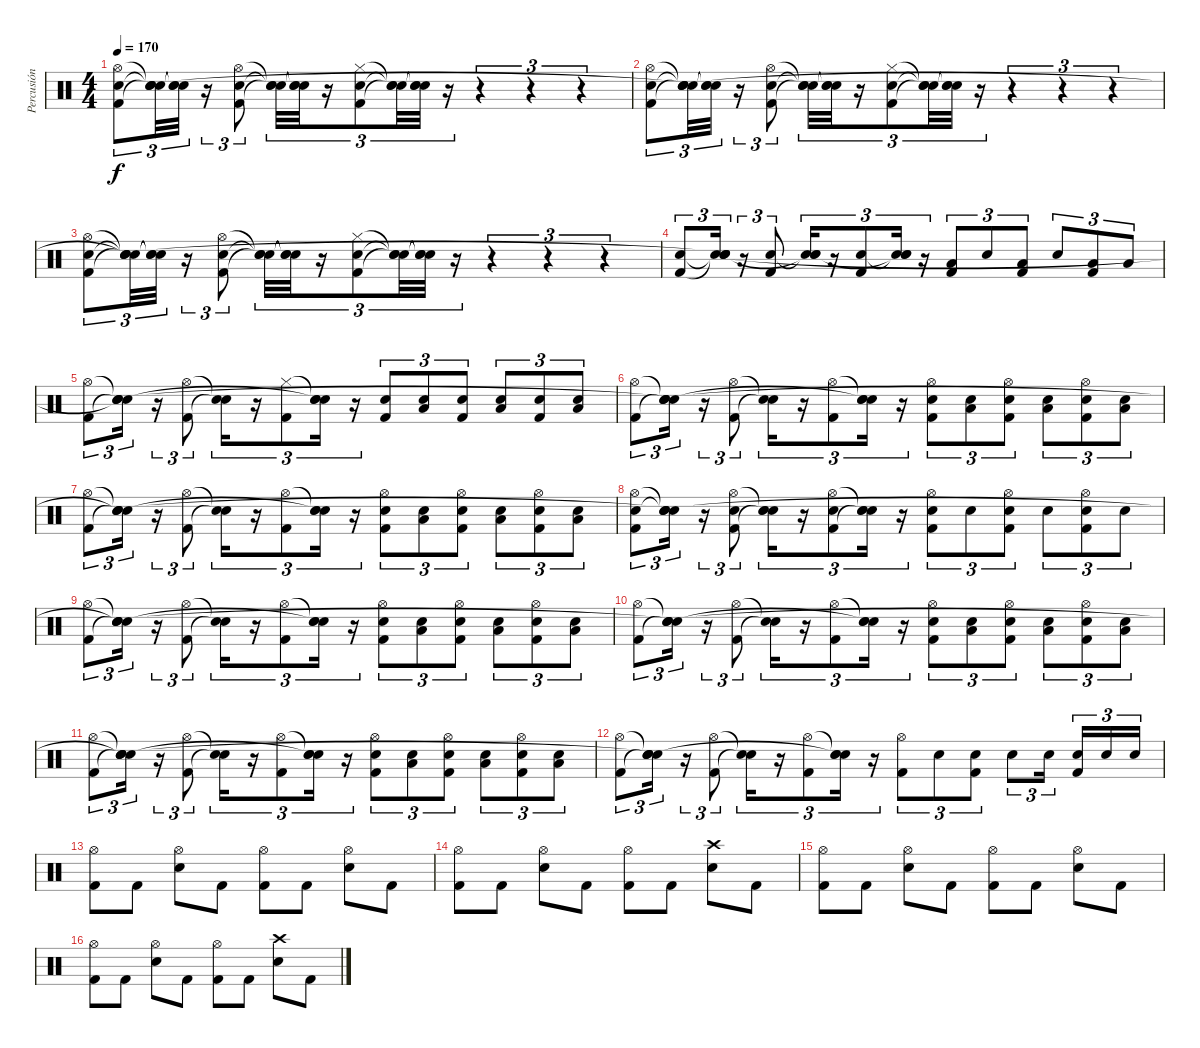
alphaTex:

\track ("Percusión" "Percusión") {instrument percussion}
\staff {score}
\articulation defaults
\ts (4 4)
\tempo 170
\clef neutral
\ks c
("Hi-Hat (open)" "Snare (hit) 2" "Kick (hit) 2").8{tu (3 2) dy f} ("Snare (hit)"{t} "Snare (hit)"{t} "Snare (hit)"{t} "Snare (hit)").32{tu (3 2)} ("Snare (hit)"{t} "Snare (hit)"{t} "Snare (hit)"{t}).32{tu (3 2)} r.16{tu (3 2)} ("Hi-Hat (open)" "Snare (hit) 2" "Kick (hit) 2").8{tu (3 2)} ("Snare (hit)"{t} "Snare (hit)"{t} "Snare (hit)"{t}).32{tu (3 2)} ("Snare (hit)"{t} "Snare (hit)"{t} "Snare (hit)"{t}).32{tu (3 2)} r.16{tu (3 2)} ("Hi-Hat (closed)" "Snare (hit) 2" "Kick (hit) 2").8{tu (3 2)} ("Snare (hit)"{t} "Snare (hit)"{t} "Snare (hit)"{t}).32{tu (3 2)} ("Snare (hit)"{t} "Snare (hit)"{t} "Snare (hit)"{t}).32{tu (3 2)} r.16{tu (3 2)} r.4{tu (3 2)} r.4{tu (3 2)} r.4{tu (3 2)} |
("Hi-Hat (open)" "Snare (hit) 2" "Kick (hit) 2").8{tu (3 2)} ("Snare (hit)"{t} "Snare (hit)"{t} "Snare (hit)"{t} "Snare (hit)"{t}).32{tu (3 2)} ("Snare (hit)"{t} "Snare (hit)"{t} "Snare (hit)"{t}).32{tu (3 2)} r.16{tu (3 2)} ("Hi-Hat (open)" "Snare (hit) 2" "Kick (hit) 2").8{tu (3 2)} ("Snare (hit)"{t} "Snare (hit)"{t} "Snare (hit)"{t}).32{tu (3 2)} ("Snare (hit)"{t} "Snare (hit)"{t} "Snare (hit)"{t}).32{tu (3 2)} r.16{tu (3 2)} ("Hi-Hat (closed)" "Snare (hit) 2" "Kick (hit) 2").8{tu (3 2)} ("Snare (hit)"{t} "Snare (hit)"{t} "Snare (hit)"{t}).32{tu (3 2)} ("Snare (hit)"{t} "Snare (hit)"{t} "Snare (hit)"{t}).32{tu (3 2)} r.16{tu (3 2)} r.4{tu (3 2)} r.4{tu (3 2)} r.4{tu (3 2)} |
("Hi-Hat (open)" "Snare (hit) 2" "Kick (hit) 2").8{tu (3 2)} ("Snare (hit)"{t} "Snare (hit)"{t} "Snare (hit)"{t} "Snare (hit)"{t}).32{tu (3 2)} ("Snare (hit)"{t} "Snare (hit)"{t} "Snare (hit)"{t}).32{tu (3 2)} r.16{tu (3 2)} ("Hi-Hat (open)" "Snare (hit) 2" "Kick (hit) 2").8{tu (3 2)} ("Snare (hit)"{t} "Snare (hit)"{t} "Snare (hit)"{t}).32{tu (3 2)} ("Snare (hit)"{t} "Snare (hit)"{t} "Snare (hit)"{t}).32{tu (3 2)} r.16{tu (3 2)} ("Hi-Hat (closed)" "Snare (hit) 2" "Kick (hit) 2").8{tu (3 2)} ("Snare (hit)"{t} "Snare (hit)"{t} "Snare (hit)"{t}).32{tu (3 2)} ("Snare (hit)"{t} "Snare (hit)"{t} "Snare (hit)"{t}).32{tu (3 2)} r.16{tu (3 2)} r.4{tu (3 2)} r.4{tu (3 2)} r.4{tu (3 2)} |
("Snare (hit) 2" "Kick (hit) 2").8{tu (3 2)} ("Snare (hit)"{t} "Snare (hit)"{t} "Snare (hit) 2" "Snare (hit)"{t}).16{tu (3 2)} r.16{tu (3 2)} ("Snare (hit) 2" "Kick (hit) 2").8{tu (3 2)} ("Snare (hit)"{t} "Snare (hit) 2" "Snare (hit)"{t}).16{tu (3 2)} r.16{tu (3 2)} ("Snare (hit) 2" "Kick (hit) 2").8{tu (3 2)} ("Snare (hit)"{t} "Snare (hit) 2" "Snare (hit)"{t}).16{tu (3 2)} r.16{tu (3 2)} ("Low Tom (hit)" "Kick (hit) 2").8{tu (3 2)} "Snare (hit) 2".8{tu (3 2)} ("Low Tom (hit)" "Kick (hit) 2").8{tu (3 2)} "Snare (hit) 2".8{tu (3 2)} ("Low Tom (hit)" "Kick (hit) 2").8{tu (3 2)} "Low Tom (hit)".8{tu (3 2)} |
("Hi-Hat (open)" "Kick (hit) 2").8{tu (3 2)} ("Snare (hit)"{t} "Snare (hit)"{t} "Snare (hit) 2" "Snare (hit)"{t}).16{tu (3 2)} r.16{tu (3 2)} ("Hi-Hat (open)" "Kick (hit) 2").8{tu (3 2)} ("Snare (hit)"{t} "Snare (hit)"{t}).16{tu (3 2)} r.16{tu (3 2)} ("Hi-Hat (closed)" "Kick (hit) 2").8{tu (3 2)} ("Snare (hit)"{t} "Snare (hit) 2" "Snare (hit)"{t}).16{tu (3 2)} r.16{tu (3 2)} ("Snare (hit) 2" "Kick (hit) 2").8{tu (3 2)} ("Low Tom (hit)" "Snare (hit) 2").8{tu (3 2)} ("Snare (hit) 2" "Kick (hit) 2").8{tu (3 2)} ("Low Tom (hit)" "Snare (hit) 2").8{tu (3 2)} ("Snare (hit) 2" "Kick (hit) 2").8{tu (3 2)} ("Low Tom (hit)" "Snare (hit) 2").8{tu (3 2)} |
("Hi-Hat (open)" "Kick (hit) 2").8{tu (3 2)} ("Snare (hit)"{t} "Snare (hit)"{t} "Snare (hit) 2" "Snare (hit)"{t}).16{tu (3 2)} r.16{tu (3 2)} ("Hi-Hat (open)" "Kick (hit) 2").8{tu (3 2)} ("Snare (hit)"{t} "Snare (hit)"{t}).16{tu (3 2)} r.16{tu (3 2)} ("Hi-Hat (open)" "Kick (hit) 2").8{tu (3 2)} ("Snare (hit)"{t} "Snare (hit) 2" "Snare (hit)"{t}).16{tu (3 2)} r.16{tu (3 2)} ("Hi-Hat (open)" "Snare (hit) 2" "Kick (hit) 2").8{tu (3 2)} ("Low Tom (hit)" "Snare (hit) 2").8{tu (3 2)} ("Hi-Hat (open)" "Snare (hit) 2" "Kick (hit) 2").8{tu (3 2)} ("Low Tom (hit)" "Snare (hit) 2").8{tu (3 2)} ("Hi-Hat (open)" "Snare (hit) 2" "Kick (hit) 2").8{tu (3 2)} ("Low Tom (hit)" "Snare (hit) 2").8{tu (3 2)} |
("Hi-Hat (open)" "Kick (hit) 2").8{tu (3 2)} ("Snare (hit)"{t} "Snare (hit)"{t} "Snare (hit) 2" "Snare (hit)"{t}).16{tu (3 2)} r.16{tu (3 2)} ("Hi-Hat (open)" "Kick (hit) 2").8{tu (3 2)} ("Snare (hit)"{t} "Snare (hit)"{t}).16{tu (3 2)} r.16{tu (3 2)} ("Hi-Hat (open)" "Kick (hit) 2").8{tu (3 2)} ("Snare (hit)"{t} "Snare (hit) 2" "Snare (hit)"{t}).16{tu (3 2)} r.16{tu (3 2)} ("Hi-Hat (open)" "Snare (hit) 2" "Kick (hit) 2").8{tu (3 2)} ("Low Tom (hit)" "Snare (hit) 2").8{tu (3 2)} ("Hi-Hat (open)" "Snare (hit) 2" "Kick (hit) 2").8{tu (3 2)} ("Low Tom (hit)" "Snare (hit) 2").8{tu (3 2)} ("Hi-Hat (open)" "Snare (hit) 2" "Kick (hit) 2").8{tu (3 2)} ("Low Tom (hit)" "Snare (hit) 2").8{tu (3 2)} |
("Hi-Hat (open)" "Snare (hit) 2" "Kick (hit) 2").8{tu (3 2)} ("Snare (hit)"{t} "Snare (hit)"{t} "Snare (hit) 2" "Snare (hit)"{t}).16{tu (3 2)} r.16{tu (3 2)} ("Hi-Hat (open)" "Snare (hit) 2" "Kick (hit) 2").8{tu (3 2)} ("Snare (hit)"{t} "Snare (hit) 2" "Snare (hit)"{t}).16{tu (3 2)} r.16{tu (3 2)} ("Hi-Hat (open)" "Snare (hit) 2" "Kick (hit) 2").8{tu (3 2)} ("Snare (hit)"{t} "Snare (hit) 2" "Snare (hit)"{t}).16{tu (3 2)} r.16{tu (3 2)} ("Hi-Hat (open)" "Snare (hit) 2" "Kick (hit) 2").8{tu (3 2)} "Snare (hit) 2".8{tu (3 2)} ("Hi-Hat (open)" "Snare (hit) 2" "Kick (hit) 2").8{tu (3 2)} "Snare (hit) 2".8{tu (3 2)} ("Hi-Hat (open)" "Snare (hit) 2" "Kick (hit) 2").8{tu (3 2)} "Snare (hit) 2".8{tu (3 2)} |
("Hi-Hat (open)" "Kick (hit) 2").8{tu (3 2)} ("Snare (hit)"{t} "Snare (hit)"{t} "Snare (hit) 2" "Snare (hit)"{t}).16{tu (3 2)} r.16{tu (3 2)} ("Hi-Hat (open)" "Kick (hit) 2").8{tu (3 2)} ("Snare (hit)"{t} "Snare (hit)"{t}).16{tu (3 2)} r.16{tu (3 2)} ("Hi-Hat (open)" "Kick (hit) 2").8{tu (3 2)} ("Snare (hit)"{t} "Snare (hit) 2" "Snare (hit)"{t}).16{tu (3 2)} r.16{tu (3 2)} ("Hi-Hat (open)" "Snare (hit) 2" "Kick (hit) 2").8{tu (3 2)} ("Low Tom (hit)" "Snare (hit) 2").8{tu (3 2)} ("Hi-Hat (open)" "Snare (hit) 2" "Kick (hit) 2").8{tu (3 2)} ("Low Tom (hit)" "Snare (hit) 2").8{tu (3 2)} ("Hi-Hat (open)" "Snare (hit) 2" "Kick (hit) 2").8{tu (3 2)} ("Low Tom (hit)" "Snare (hit) 2").8{tu (3 2)} |
("Hi-Hat (open)" "Kick (hit) 2").8{tu (3 2)} ("Snare (hit)"{t} "Snare (hit)"{t} "Snare (hit) 2" "Snare (hit)"{t}).16{tu (3 2)} r.16{tu (3 2)} ("Hi-Hat (open)" "Kick (hit) 2").8{tu (3 2)} ("Snare (hit)"{t} "Snare (hit)"{t}).16{tu (3 2)} r.16{tu (3 2)} ("Hi-Hat (open)" "Kick (hit) 2").8{tu (3 2)} ("Snare (hit)"{t} "Snare (hit) 2" "Snare (hit)"{t}).16{tu (3 2)} r.16{tu (3 2)} ("Hi-Hat (open)" "Snare (hit) 2" "Kick (hit) 2").8{tu (3 2)} ("Low Tom (hit)" "Snare (hit) 2").8{tu (3 2)} ("Hi-Hat (open)" "Snare (hit) 2" "Kick (hit) 2").8{tu (3 2)} ("Low Tom (hit)" "Snare (hit) 2").8{tu (3 2)} ("Hi-Hat (open)" "Snare (hit) 2" "Kick (hit) 2").8{tu (3 2)} ("Low Tom (hit)" "Snare (hit) 2").8{tu (3 2)} |
("Hi-Hat (open)" "Kick (hit) 2").8{tu (3 2)} ("Snare (hit)"{t} "Snare (hit)"{t} "Snare (hit) 2" "Snare (hit)"{t}).16{tu (3 2)} r.16{tu (3 2)} ("Hi-Hat (open)" "Kick (hit) 2").8{tu (3 2)} ("Snare (hit)"{t} "Snare (hit)"{t}).16{tu (3 2)} r.16{tu (3 2)} ("Hi-Hat (open)" "Kick (hit) 2").8{tu (3 2)} ("Snare (hit)"{t} "Snare (hit) 2" "Snare (hit)"{t}).16{tu (3 2)} r.16{tu (3 2)} ("Hi-Hat (open)" "Snare (hit) 2" "Kick (hit) 2").8{tu (3 2)} ("Low Tom (hit)" "Snare (hit) 2").8{tu (3 2)} ("Hi-Hat (open)" "Snare (hit) 2" "Kick (hit) 2").8{tu (3 2)} ("Low Tom (hit)" "Snare (hit) 2").8{tu (3 2)} ("Hi-Hat (open)" "Snare (hit) 2" "Kick (hit) 2").8{tu (3 2)} ("Low Tom (hit)" "Snare (hit) 2").8{tu (3 2)} |
("Hi-Hat (open)" "Kick (hit) 2").8{tu (3 2)} ("Snare (hit)"{t} "Snare (hit)"{t} "Snare (hit) 2" "Snare (hit)"{t}).16{tu (3 2)} r.16{tu (3 2)} ("Hi-Hat (open)" "Kick (hit) 2").8{tu (3 2)} ("Snare (hit)"{t} "Snare (hit)"{t}).16{tu (3 2)} r.16{tu (3 2)} ("Hi-Hat (open)" "Kick (hit) 2").8{tu (3 2)} ("Snare (hit)"{t} "Snare (hit) 2" "Snare (hit)"{t}).16{tu (3 2)} r.16{tu (3 2)} ("Hi-Hat (open)" "Kick (hit) 2").8{tu (3 2)} "Snare (hit) 2".8{tu (3 2)} ("Snare (hit) 2" "Kick (hit) 2").8{tu (3 2)} "Snare (hit) 2".8{tu (3 2)} "Snare (hit) 2".16{tu (3 2) beam splitsecondary} ("Snare (hit) 2" "Kick (hit) 2").16{tu (3 2)} "Snare (hit) 2".16{tu (3 2)} "Snare (hit) 2".16{tu (3 2)} |
("Hi-Hat (open)" "Kick (hit) 2").8 "Kick (hit) 2".8 ("Hi-Hat (open)" "Snare (hit) 2").8 "Kick (hit) 2".8 ("Hi-Hat (open)" "Kick (hit) 2").8 "Kick (hit) 2".8 ("Hi-Hat (open)" "Snare (hit) 2").8 "Kick (hit) 2".8 |
("Hi-Hat (open)" "Kick (hit) 2").8 "Kick (hit) 2".8 ("Hi-Hat (open)" "Snare (hit) 2").8 "Kick (hit) 2".8 ("Hi-Hat (open)" "Kick (hit) 2").8 "Kick (hit) 2".8 ("Crash high (hit)" "Snare (hit) 2").8 "Kick (hit) 2".8 |
("Hi-Hat (open)" "Kick (hit) 2").8 "Kick (hit) 2".8 ("Hi-Hat (open)" "Snare (hit) 2").8 "Kick (hit) 2".8 ("Hi-Hat (open)" "Kick (hit) 2").8 "Kick (hit) 2".8 ("Hi-Hat (open)" "Snare (hit) 2").8 "Kick (hit) 2".8 |
("Hi-Hat (open)" "Kick (hit) 2").8 "Kick (hit) 2".8 ("Hi-Hat (open)" "Snare (hit) 2").8 "Kick (hit) 2".8 ("Hi-Hat (open)" "Kick (hit) 2").8 "Kick (hit) 2".8 ("Crash high (hit)" "Snare (hit) 2").8 "Kick (hit) 2".8
